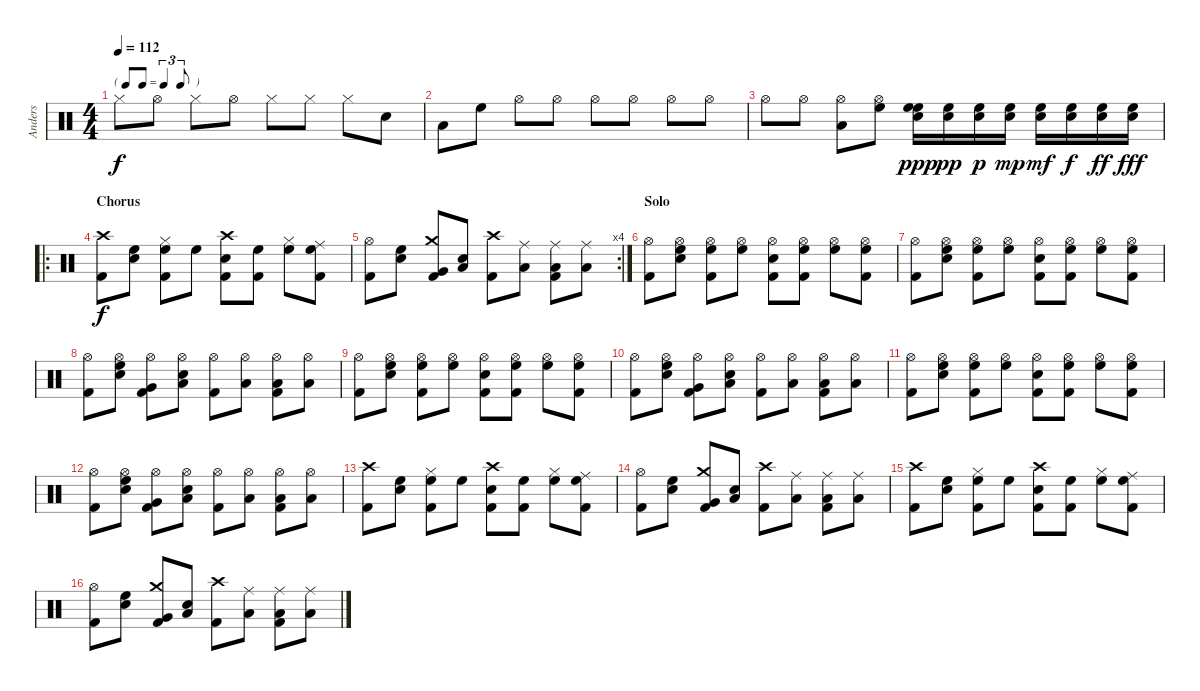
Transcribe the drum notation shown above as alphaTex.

\track ("Anders" "Anders") {instrument percussion}
\staff {score}
\articulation defaults
\ts (4 4)
\tf triplet8th
\tempo 112
\clef neutral
\ks c "Hi-Hat (closed)".8{dy f} "Hi-Hat (open)".8 "Hi-Hat (closed)".8 "Hi-Hat (open)".8 "Hi-Hat (closed)".8 "Hi-Hat (closed)".8 "Hi-Hat (closed)".8 "Snare (hit) 2".8
|
"Low Tom (hit)".8 "High Floor Tom (hit)".8 "Hi-Hat (open)".8 "Hi-Hat (open)".8 "Hi-Hat (open)".8 "Hi-Hat (open)".8 "Hi-Hat (open)".8 "Hi-Hat (open)".8 |
"Hi-Hat (open)".8 "Hi-Hat (open)".8 ("Hi-Hat (open)" "Low Tom (hit)").8 ("Hi-Hat (open)" "High Floor Tom (hit)").8 ("Snare (hit) 2" "High Floor Tom (hit)" "High Floor Tom (hit)").16{dy ppp} ("Snare (hit) 2" "High Floor Tom (hit)").16{dy pp} ("Snare (hit) 2" "High Floor Tom (hit)").16{dy p} ("Snare (hit) 2" "High Floor Tom (hit)").16{dy mp} ("Snare (hit) 2" "High Floor Tom (hit)").16{dy mf} ("Snare (hit) 2" "High Floor Tom (hit)").16{dy f} ("Snare (hit) 2" "High Floor Tom (hit)").16{dy ff} ("Snare (hit) 2" "High Floor Tom (hit)").16{dy fff} |
\ro
\section ("" "Chorus")
("Crash high (hit)" "Kick (hit) 2").8{dy f} ("Snare (hit) 2" "High Floor Tom (hit)").8 ("Hi-Hat (closed)" "High Floor Tom (hit)" "Kick (hit) 2").8 "High Floor Tom (hit)".8 ("Crash high (hit)" "Snare (hit) 2" "Kick (hit) 2").8 ("High Floor Tom (hit)" "Kick (hit) 2").8 ("Hi-Hat (closed)" "High Floor Tom (hit)").8 ("Ride (middle)" "High Floor Tom (hit)" "Kick (hit) 2").8 |
\rc 4
("Hi-Hat (open)" "Kick (hit) 2").8 ("High Floor Tom (hit)" "Snare (hit) 2").8 ("Crash medium (hit)" "Very Low Tom (hit)" "Kick (hit) 2").8 ("Snare (hit) 2" "Low Tom (hit)").8 ("Crash high (hit)" "Kick (hit) 2").8 ("Ride (middle)" "Low Floor Tom (hit)").8 ("Ride (middle)" "Low Floor Tom (hit)" "Kick (hit) 2").8 ("Ride (middle)" "Low Floor Tom (hit)").8 |
\section ("" "Solo")
("Hi-Hat (open)" "Kick (hit) 2").8 ("Hi-Hat (open)" "Snare (hit) 2" "High Floor Tom (hit)").8 ("Hi-Hat (open)" "High Floor Tom (hit)" "Kick (hit) 2").8 ("Hi-Hat (open)" "High Floor Tom (hit)").8 ("Hi-Hat (open)" "Snare (hit) 2" "Kick (hit) 2").8 ("Hi-Hat (open)" "High Floor Tom (hit)" "Kick (hit) 2").8 ("Hi-Hat (open)" "High Floor Tom (hit)").8 ("Hi-Hat (open)" "High Floor Tom (hit)" "Kick (hit) 2").8 |
("Hi-Hat (open)" "Kick (hit) 2").8 ("Hi-Hat (open)" "Snare (hit) 2" "High Floor Tom (hit)").8 ("Hi-Hat (open)" "High Floor Tom (hit)" "Kick (hit) 2").8 ("Hi-Hat (open)" "High Floor Tom (hit)").8 ("Hi-Hat (open)" "Snare (hit) 2" "Kick (hit) 2").8 ("Hi-Hat (open)" "High Floor Tom (hit)" "Kick (hit) 2").8 ("Hi-Hat (open)" "High Floor Tom (hit)").8 ("Hi-Hat (open)" "High Floor Tom (hit)" "Kick (hit) 2").8 |
("Hi-Hat (open)" "Kick (hit) 2").8 ("Hi-Hat (open)" "High Floor Tom (hit)" "Snare (hit) 2").8 ("Hi-Hat (open)" "Very Low Tom (hit)" "Kick (hit) 2").8 ("Hi-Hat (open)" "Snare (hit) 2" "Low Tom (hit)").8 ("Hi-Hat (open)" "Kick (hit) 2").8 ("Hi-Hat (open)" "Low Floor Tom (hit)").8 ("Hi-Hat (open)" "Low Floor Tom (hit)" "Kick (hit) 2").8 ("Hi-Hat (open)" "Low Floor Tom (hit)").8 |
("Hi-Hat (open)" "Kick (hit) 2").8 ("Hi-Hat (open)" "Snare (hit) 2" "High Floor Tom (hit)").8 ("Hi-Hat (open)" "High Floor Tom (hit)" "Kick (hit) 2").8 ("Hi-Hat (open)" "High Floor Tom (hit)").8 ("Hi-Hat (open)" "Snare (hit) 2" "Kick (hit) 2").8 ("Hi-Hat (open)" "High Floor Tom (hit)" "Kick (hit) 2").8 ("Hi-Hat (open)" "High Floor Tom (hit)").8 ("Hi-Hat (open)" "High Floor Tom (hit)" "Kick (hit) 2").8 |
("Hi-Hat (open)" "Kick (hit) 2").8 ("Hi-Hat (open)" "High Floor Tom (hit)" "Snare (hit) 2").8 ("Hi-Hat (open)" "Very Low Tom (hit)" "Kick (hit) 2").8 ("Hi-Hat (open)" "Snare (hit) 2" "Low Tom (hit)").8 ("Hi-Hat (open)" "Kick (hit) 2").8 ("Hi-Hat (open)" "Low Floor Tom (hit)").8 ("Hi-Hat (open)" "Low Floor Tom (hit)" "Kick (hit) 2").8 ("Hi-Hat (open)" "Low Floor Tom (hit)").8 |
("Hi-Hat (open)" "Kick (hit) 2").8 ("Hi-Hat (open)" "Snare (hit) 2" "High Floor Tom (hit)").8 ("Hi-Hat (open)" "High Floor Tom (hit)" "Kick (hit) 2").8 ("Hi-Hat (open)" "High Floor Tom (hit)").8 ("Hi-Hat (open)" "Snare (hit) 2" "Kick (hit) 2").8 ("Hi-Hat (open)" "High Floor Tom (hit)" "Kick (hit) 2").8 ("Hi-Hat (open)" "High Floor Tom (hit)").8 ("Hi-Hat (open)" "High Floor Tom (hit)" "Kick (hit) 2").8 |
("Hi-Hat (open)" "Kick (hit) 2").8 ("Hi-Hat (open)" "High Floor Tom (hit)" "Snare (hit) 2").8 ("Hi-Hat (open)" "Very Low Tom (hit)" "Kick (hit) 2").8 ("Hi-Hat (open)" "Snare (hit) 2" "Low Tom (hit)").8 ("Hi-Hat (open)" "Kick (hit) 2").8 ("Hi-Hat (open)" "Low Floor Tom (hit)").8 ("Hi-Hat (open)" "Low Floor Tom (hit)" "Kick (hit) 2").8 ("Hi-Hat (open)" "Low Floor Tom (hit)").8 |
("Crash high (hit)" "Kick (hit) 2").8 ("Snare (hit) 2" "High Floor Tom (hit)").8 ("Hi-Hat (closed)" "High Floor Tom (hit)" "Kick (hit) 2").8 "High Floor Tom (hit)".8 ("Crash high (hit)" "Snare (hit) 2" "Kick (hit) 2").8 ("High Floor Tom (hit)" "Kick (hit) 2").8 ("Hi-Hat (closed)" "High Floor Tom (hit)").8 ("Ride (middle)" "High Floor Tom (hit)" "Kick (hit) 2").8 |
("Hi-Hat (open)" "Kick (hit) 2").8 ("High Floor Tom (hit)" "Snare (hit) 2").8 ("Crash medium (hit)" "Very Low Tom (hit)" "Kick (hit) 2").8 ("Snare (hit) 2" "Low Tom (hit)").8 ("Crash high (hit)" "Kick (hit) 2").8 ("Ride (middle)" "Low Floor Tom (hit)").8 ("Ride (middle)" "Low Floor Tom (hit)" "Kick (hit) 2").8 ("Ride (middle)" "Low Floor Tom (hit)").8 |
("Crash high (hit)" "Kick (hit) 2").8 ("Snare (hit) 2" "High Floor Tom (hit)").8 ("Hi-Hat (closed)" "High Floor Tom (hit)" "Kick (hit) 2").8 "High Floor Tom (hit)".8 ("Crash high (hit)" "Snare (hit) 2" "Kick (hit) 2").8 ("High Floor Tom (hit)" "Kick (hit) 2").8 ("Hi-Hat (closed)" "High Floor Tom (hit)").8 ("Ride (middle)" "High Floor Tom (hit)" "Kick (hit) 2").8 |
("Hi-Hat (open)" "Kick (hit) 2").8 ("High Floor Tom (hit)" "Snare (hit) 2").8 ("Crash medium (hit)" "Very Low Tom (hit)" "Kick (hit) 2").8 ("Snare (hit) 2" "Low Tom (hit)").8 ("Crash high (hit)" "Kick (hit) 2").8 ("Ride (middle)" "Low Floor Tom (hit)").8 ("Ride (middle)" "Low Floor Tom (hit)" "Kick (hit) 2").8 ("Ride (middle)" "Low Floor Tom (hit)").8
